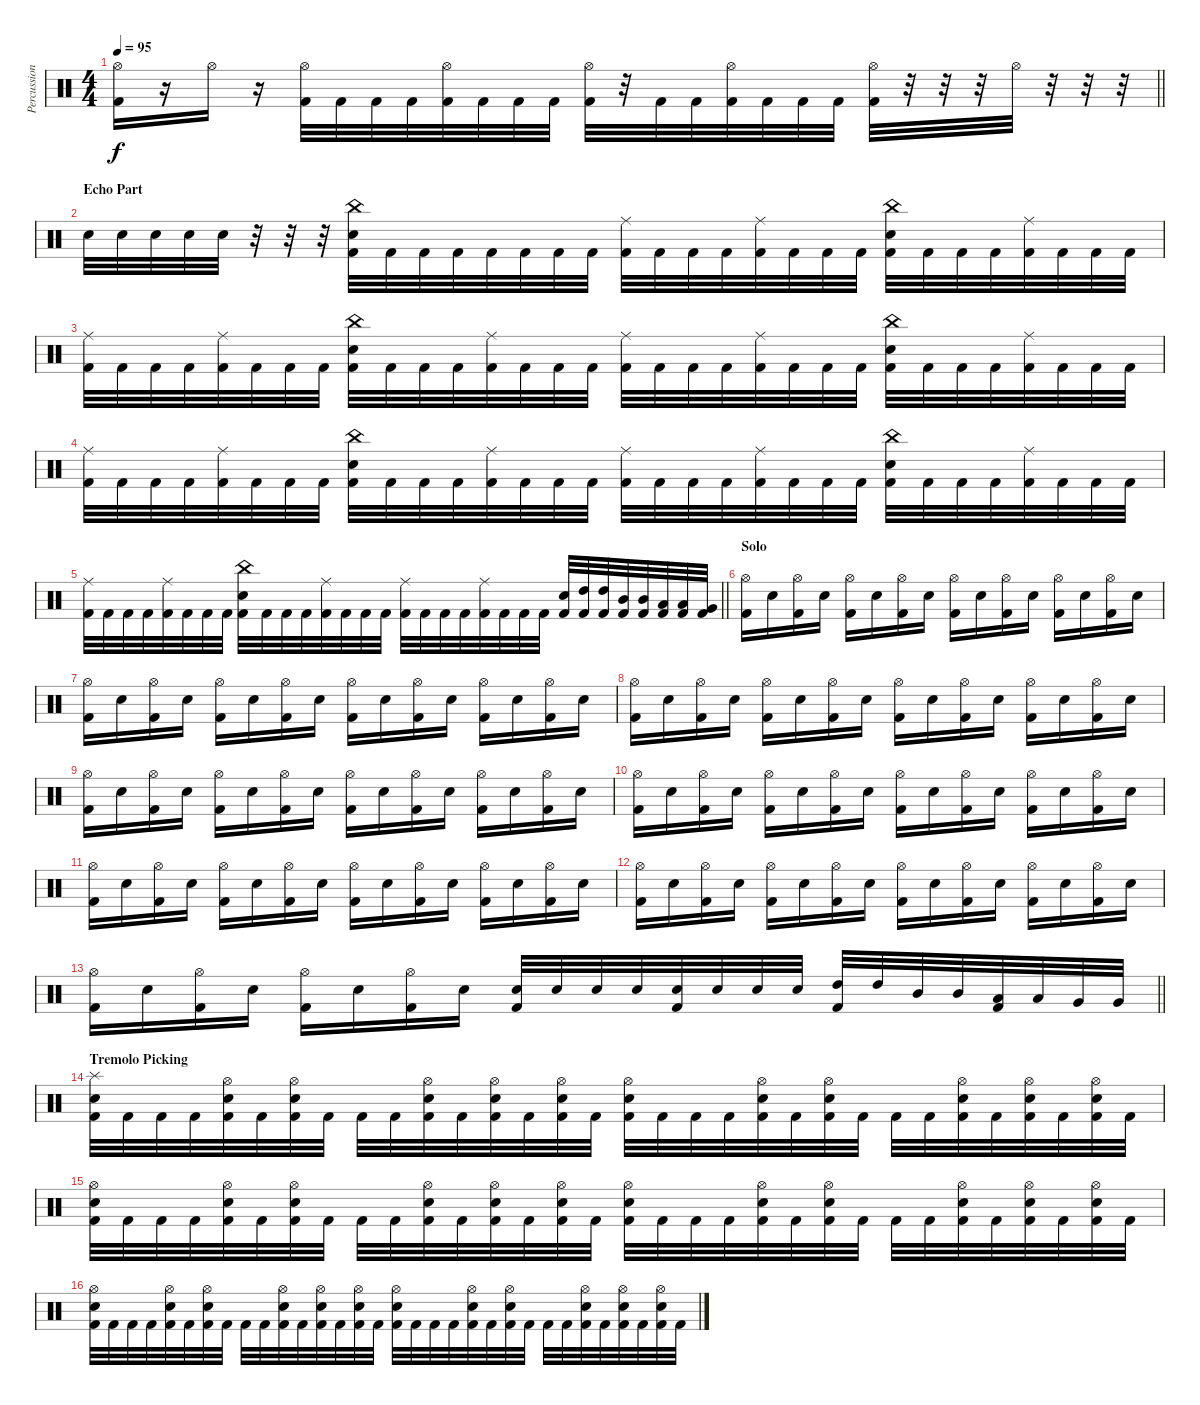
\track ("Percussion" "Percussion") {instrument percussion}
\staff {score}
\articulation defaults
\ts (4 4)
\tempo 95
\clef neutral
\barLineRight lightlight
\ks c
("Hi-Hat (open)" "Kick (hit) 2").16{dy f} r.16 "Hi-Hat (open)".16 r.16 ("Hi-Hat (open)" "Kick (hit) 2").32 "Kick (hit) 2".32 "Kick (hit) 2".32 "Kick (hit) 2".32 ("Hi-Hat (open)" "Kick (hit) 2").32 "Kick (hit) 2".32 "Kick (hit) 2".32 "Kick (hit) 2".32 ("Hi-Hat (open)" "Kick (hit) 2").32 r.32 "Kick (hit) 2".32 "Kick (hit) 2".32 ("Hi-Hat (open)" "Kick (hit) 2").32 "Kick (hit) 2".32 "Kick (hit) 2".32 "Kick (hit) 2".32 ("Hi-Hat (open)" "Kick (hit) 2").32 r.32 r.32 r.32 "Hi-Hat (open)".32 r.32 r.32 r.32 |
\section ("" "Echo Part")
"Electric Snare (hit)".32 "Electric Snare (hit)".32 "Electric Snare (hit)".32 "Electric Snare (hit)".32 "Electric Snare (hit)".32 r.32 r.32 r.32 ("China (hit)" "Electric Snare (hit)" "Kick (hit) 2").32 "Kick (hit) 2".32 "Kick (hit) 2".32 "Kick (hit) 2".32 "Kick (hit) 2".32 "Kick (hit) 2".32 "Kick (hit) 2".32 "Kick (hit) 2".32 ("Ride (middle)" "Kick (hit) 2").32 "Kick (hit) 2".32 "Kick (hit) 2".32 "Kick (hit) 2".32 ("Ride (middle)" "Kick (hit) 2").32 "Kick (hit) 2".32 "Kick (hit) 2".32 "Kick (hit) 2".32 ("China (hit)" "Electric Snare (hit)" "Kick (hit) 2").32 "Kick (hit) 2".32 "Kick (hit) 2".32 "Kick (hit) 2".32 ("Ride (middle)" "Kick (hit) 2").32 "Kick (hit) 2".32 "Kick (hit) 2".32 "Kick (hit) 2".32 |
("Ride (middle)" "Kick (hit) 2").32 "Kick (hit) 2".32 "Kick (hit) 2".32 "Kick (hit) 2".32 ("Ride (middle)" "Kick (hit) 2").32 "Kick (hit) 2".32 "Kick (hit) 2".32 "Kick (hit) 2".32 ("China (hit)" "Electric Snare (hit)" "Kick (hit) 2").32 "Kick (hit) 2".32 "Kick (hit) 2".32 "Kick (hit) 2".32 ("Ride (middle)" "Kick (hit) 2").32 "Kick (hit) 2".32 "Kick (hit) 2".32 "Kick (hit) 2".32 ("Ride (middle)" "Kick (hit) 2").32 "Kick (hit) 2".32 "Kick (hit) 2".32 "Kick (hit) 2".32 ("Ride (middle)" "Kick (hit) 2").32 "Kick (hit) 2".32 "Kick (hit) 2".32 "Kick (hit) 2".32 ("China (hit)" "Electric Snare (hit)" "Kick (hit) 2").32 "Kick (hit) 2".32 "Kick (hit) 2".32 "Kick (hit) 2".32 ("Ride (middle)" "Kick (hit) 2").32 "Kick (hit) 2".32 "Kick (hit) 2".32 "Kick (hit) 2".32 |
("Ride (middle)" "Kick (hit) 2").32 "Kick (hit) 2".32 "Kick (hit) 2".32 "Kick (hit) 2".32 ("Ride (middle)" "Kick (hit) 2").32 "Kick (hit) 2".32 "Kick (hit) 2".32 "Kick (hit) 2".32 ("China (hit)" "Electric Snare (hit)" "Kick (hit) 2").32 "Kick (hit) 2".32 "Kick (hit) 2".32 "Kick (hit) 2".32 ("Ride (middle)" "Kick (hit) 2").32 "Kick (hit) 2".32 "Kick (hit) 2".32 "Kick (hit) 2".32 ("Ride (middle)" "Kick (hit) 2").32 "Kick (hit) 2".32 "Kick (hit) 2".32 "Kick (hit) 2".32 ("Ride (middle)" "Kick (hit) 2").32 "Kick (hit) 2".32 "Kick (hit) 2".32 "Kick (hit) 2".32 ("China (hit)" "Electric Snare (hit)" "Kick (hit) 2").32 "Kick (hit) 2".32 "Kick (hit) 2".32 "Kick (hit) 2".32 ("Ride (middle)" "Kick (hit) 2").32 "Kick (hit) 2".32 "Kick (hit) 2".32 "Kick (hit) 2".32 |
\barLineRight lightlight
("Ride (middle)" "Kick (hit) 2").32 "Kick (hit) 2".32 "Kick (hit) 2".32 "Kick (hit) 2".32 ("Ride (middle)" "Kick (hit) 2").32 "Kick (hit) 2".32 "Kick (hit) 2".32 "Kick (hit) 2".32 ("China (hit)" "Electric Snare (hit)" "Kick (hit) 2").32 "Kick (hit) 2".32 "Kick (hit) 2".32 "Kick (hit) 2".32 ("Ride (middle)" "Kick (hit) 2").32 "Kick (hit) 2".32 "Kick (hit) 2".32 "Kick (hit) 2".32 ("Ride (middle)" "Kick (hit) 2").32 "Kick (hit) 2".32 "Kick (hit) 2".32 "Kick (hit) 2".32 ("Ride (middle)" "Kick (hit) 2").32 "Kick (hit) 2".32 "Kick (hit) 2".32 "Kick (hit) 2".32 ("Electric Snare (hit)" "Kick (hit) 2").32 ("High Tom (hit)" "Kick (hit) 2").32 ("High Tom (hit)" "Kick (hit) 2").32 ("Mid Tom (hit)" "Kick (hit) 2").32 ("Mid Tom (hit)" "Kick (hit) 2").32 ("Low Tom (hit)" "Kick (hit) 2").32 ("Low Tom (hit)" "Kick (hit) 2").32 ("Very Low Tom (hit)" "Kick (hit) 2").32 |
\section ("" "Solo")
("Hi-Hat (open)" "Kick (hit) 2").16 "Electric Snare (hit)".16 ("Hi-Hat (open)" "Kick (hit) 2").16 "Electric Snare (hit)".16 ("Hi-Hat (open)" "Kick (hit) 2").16 "Electric Snare (hit)".16 ("Hi-Hat (open)" "Kick (hit) 2").16 "Electric Snare (hit)".16 ("Hi-Hat (open)" "Kick (hit) 2").16 "Electric Snare (hit)".16 ("Hi-Hat (open)" "Kick (hit) 2").16 "Electric Snare (hit)".16 ("Hi-Hat (open)" "Kick (hit) 2").16 "Electric Snare (hit)".16 ("Hi-Hat (open)" "Kick (hit) 2").16 "Electric Snare (hit)".16 |
("Hi-Hat (open)" "Kick (hit) 2").16 "Electric Snare (hit)".16 ("Hi-Hat (open)" "Kick (hit) 2").16 "Electric Snare (hit)".16 ("Hi-Hat (open)" "Kick (hit) 2").16 "Electric Snare (hit)".16 ("Hi-Hat (open)" "Kick (hit) 2").16 "Electric Snare (hit)".16 ("Hi-Hat (open)" "Kick (hit) 2").16 "Electric Snare (hit)".16 ("Hi-Hat (open)" "Kick (hit) 2").16 "Electric Snare (hit)".16 ("Hi-Hat (open)" "Kick (hit) 2").16 "Electric Snare (hit)".16 ("Hi-Hat (open)" "Kick (hit) 2").16 "Electric Snare (hit)".16 |
("Hi-Hat (open)" "Kick (hit) 2").16 "Electric Snare (hit)".16 ("Hi-Hat (open)" "Kick (hit) 2").16 "Electric Snare (hit)".16 ("Hi-Hat (open)" "Kick (hit) 2").16 "Electric Snare (hit)".16 ("Hi-Hat (open)" "Kick (hit) 2").16 "Electric Snare (hit)".16 ("Hi-Hat (open)" "Kick (hit) 2").16 "Electric Snare (hit)".16 ("Hi-Hat (open)" "Kick (hit) 2").16 "Electric Snare (hit)".16 ("Hi-Hat (open)" "Kick (hit) 2").16 "Electric Snare (hit)".16 ("Hi-Hat (open)" "Kick (hit) 2").16 "Electric Snare (hit)".16 |
("Hi-Hat (open)" "Kick (hit) 2").16 "Electric Snare (hit)".16 ("Hi-Hat (open)" "Kick (hit) 2").16 "Electric Snare (hit)".16 ("Hi-Hat (open)" "Kick (hit) 2").16 "Electric Snare (hit)".16 ("Hi-Hat (open)" "Kick (hit) 2").16 "Electric Snare (hit)".16 ("Hi-Hat (open)" "Kick (hit) 2").16 "Electric Snare (hit)".16 ("Hi-Hat (open)" "Kick (hit) 2").16 "Electric Snare (hit)".16 ("Hi-Hat (open)" "Kick (hit) 2").16 "Electric Snare (hit)".16 ("Hi-Hat (open)" "Kick (hit) 2").16 "Electric Snare (hit)".16 |
("Hi-Hat (open)" "Kick (hit) 2").16 "Electric Snare (hit)".16 ("Hi-Hat (open)" "Kick (hit) 2").16 "Electric Snare (hit)".16 ("Hi-Hat (open)" "Kick (hit) 2").16 "Electric Snare (hit)".16 ("Hi-Hat (open)" "Kick (hit) 2").16 "Electric Snare (hit)".16 ("Hi-Hat (open)" "Kick (hit) 2").16 "Electric Snare (hit)".16 ("Hi-Hat (open)" "Kick (hit) 2").16 "Electric Snare (hit)".16 ("Hi-Hat (open)" "Kick (hit) 2").16 "Electric Snare (hit)".16 ("Hi-Hat (open)" "Kick (hit) 2").16 "Electric Snare (hit)".16 |
("Hi-Hat (open)" "Kick (hit) 2").16 "Electric Snare (hit)".16 ("Hi-Hat (open)" "Kick (hit) 2").16 "Electric Snare (hit)".16 ("Hi-Hat (open)" "Kick (hit) 2").16 "Electric Snare (hit)".16 ("Hi-Hat (open)" "Kick (hit) 2").16 "Electric Snare (hit)".16 ("Hi-Hat (open)" "Kick (hit) 2").16 "Electric Snare (hit)".16 ("Hi-Hat (open)" "Kick (hit) 2").16 "Electric Snare (hit)".16 ("Hi-Hat (open)" "Kick (hit) 2").16 "Electric Snare (hit)".16 ("Hi-Hat (open)" "Kick (hit) 2").16 "Electric Snare (hit)".16 |
("Hi-Hat (open)" "Kick (hit) 2").16 "Electric Snare (hit)".16 ("Hi-Hat (open)" "Kick (hit) 2").16 "Electric Snare (hit)".16 ("Hi-Hat (open)" "Kick (hit) 2").16 "Electric Snare (hit)".16 ("Hi-Hat (open)" "Kick (hit) 2").16 "Electric Snare (hit)".16 ("Hi-Hat (open)" "Kick (hit) 2").16 "Electric Snare (hit)".16 ("Hi-Hat (open)" "Kick (hit) 2").16 "Electric Snare (hit)".16 ("Hi-Hat (open)" "Kick (hit) 2").16 "Electric Snare (hit)".16 ("Hi-Hat (open)" "Kick (hit) 2").16 "Electric Snare (hit)".16 |
\barLineRight lightlight
("Hi-Hat (open)" "Kick (hit) 2").16 "Electric Snare (hit)".16 ("Hi-Hat (open)" "Kick (hit) 2").16 "Electric Snare (hit)".16 ("Hi-Hat (open)" "Kick (hit) 2").16 "Electric Snare (hit)".16 ("Hi-Hat (open)" "Kick (hit) 2").16 "Electric Snare (hit)".16 ("Electric Snare (hit)" "Kick (hit) 2").32 "Electric Snare (hit)".32 "Electric Snare (hit)".32 "Electric Snare (hit)".32 ("Electric Snare (hit)" "Kick (hit) 2").32 "Electric Snare (hit)".32 "Electric Snare (hit)".32 "Electric Snare (hit)".32 ("High Tom (hit)" "Kick (hit) 2").32 "High Tom (hit)".32 "Mid Tom (hit)".32 "Mid Tom (hit)".32 ("Low Tom (hit)" "Kick (hit) 2").32 "Low Tom (hit)".32 "Very Low Tom (hit)".32 "Very Low Tom (hit)".32 |
\section ("" "Tremolo Picking")
("Splash (hit)" "Electric Snare (hit)" "Kick (hit) 2").32 "Kick (hit) 2".32 "Kick (hit) 2".32 "Kick (hit) 2".32 ("Hi-Hat (open)" "Electric Snare (hit)" "Kick (hit) 2").32 "Kick (hit) 2".32 ("Hi-Hat (open)" "Electric Snare (hit)" "Kick (hit) 2").32 "Kick (hit) 2".32 "Kick (hit) 2".32 "Kick (hit) 2".32 ("Hi-Hat (open)" "Electric Snare (hit)" "Kick (hit) 2").32 "Kick (hit) 2".32 ("Hi-Hat (open)" "Electric Snare (hit)" "Kick (hit) 2").32 "Kick (hit) 2".32 ("Hi-Hat (open)" "Electric Snare (hit)" "Kick (hit) 2").32 "Kick (hit) 2".32 ("Hi-Hat (open)" "Electric Snare (hit)" "Kick (hit) 2").32 "Kick (hit) 2".32 "Kick (hit) 2".32 "Kick (hit) 2".32 ("Hi-Hat (open)" "Electric Snare (hit)" "Kick (hit) 2").32 "Kick (hit) 2".32 ("Hi-Hat (open)" "Electric Snare (hit)" "Kick (hit) 2").32 "Kick (hit) 2".32 "Kick (hit) 2".32 "Kick (hit) 2".32 ("Hi-Hat (open)" "Electric Snare (hit)" "Kick (hit) 2").32 "Kick (hit) 2".32 ("Hi-Hat (open)" "Electric Snare (hit)" "Kick (hit) 2").32 "Kick (hit) 2".32 ("Hi-Hat (open)" "Electric Snare (hit)" "Kick (hit) 2").32 "Kick (hit) 2".32 |
("Hi-Hat (open)" "Electric Snare (hit)" "Kick (hit) 2").32 "Kick (hit) 2".32 "Kick (hit) 2".32 "Kick (hit) 2".32 ("Hi-Hat (open)" "Electric Snare (hit)" "Kick (hit) 2").32 "Kick (hit) 2".32 ("Hi-Hat (open)" "Electric Snare (hit)" "Kick (hit) 2").32 "Kick (hit) 2".32 "Kick (hit) 2".32 "Kick (hit) 2".32 ("Hi-Hat (open)" "Electric Snare (hit)" "Kick (hit) 2").32 "Kick (hit) 2".32 ("Hi-Hat (open)" "Electric Snare (hit)" "Kick (hit) 2").32 "Kick (hit) 2".32 ("Hi-Hat (open)" "Electric Snare (hit)" "Kick (hit) 2").32 "Kick (hit) 2".32 ("Hi-Hat (open)" "Electric Snare (hit)" "Kick (hit) 2").32 "Kick (hit) 2".32 "Kick (hit) 2".32 "Kick (hit) 2".32 ("Hi-Hat (open)" "Electric Snare (hit)" "Kick (hit) 2").32 "Kick (hit) 2".32 ("Hi-Hat (open)" "Electric Snare (hit)" "Kick (hit) 2").32 "Kick (hit) 2".32 "Kick (hit) 2".32 "Kick (hit) 2".32 ("Hi-Hat (open)" "Electric Snare (hit)" "Kick (hit) 2").32 "Kick (hit) 2".32 ("Hi-Hat (open)" "Electric Snare (hit)" "Kick (hit) 2").32 "Kick (hit) 2".32 ("Hi-Hat (open)" "Electric Snare (hit)" "Kick (hit) 2").32 "Kick (hit) 2".32 |
("Hi-Hat (open)" "Electric Snare (hit)" "Kick (hit) 2").32 "Kick (hit) 2".32 "Kick (hit) 2".32 "Kick (hit) 2".32 ("Hi-Hat (open)" "Electric Snare (hit)" "Kick (hit) 2").32 "Kick (hit) 2".32 ("Hi-Hat (open)" "Electric Snare (hit)" "Kick (hit) 2").32 "Kick (hit) 2".32 "Kick (hit) 2".32 "Kick (hit) 2".32 ("Hi-Hat (open)" "Electric Snare (hit)" "Kick (hit) 2").32 "Kick (hit) 2".32 ("Hi-Hat (open)" "Electric Snare (hit)" "Kick (hit) 2").32 "Kick (hit) 2".32 ("Hi-Hat (open)" "Electric Snare (hit)" "Kick (hit) 2").32 "Kick (hit) 2".32 ("Hi-Hat (open)" "Electric Snare (hit)" "Kick (hit) 2").32 "Kick (hit) 2".32 "Kick (hit) 2".32 "Kick (hit) 2".32 ("Hi-Hat (open)" "Electric Snare (hit)" "Kick (hit) 2").32 "Kick (hit) 2".32 ("Hi-Hat (open)" "Electric Snare (hit)" "Kick (hit) 2").32 "Kick (hit) 2".32 "Kick (hit) 2".32 "Kick (hit) 2".32 ("Hi-Hat (open)" "Electric Snare (hit)" "Kick (hit) 2").32 "Kick (hit) 2".32 ("Hi-Hat (open)" "Electric Snare (hit)" "Kick (hit) 2").32 "Kick (hit) 2".32 ("Hi-Hat (open)" "Electric Snare (hit)" "Kick (hit) 2").32 "Kick (hit) 2".32
